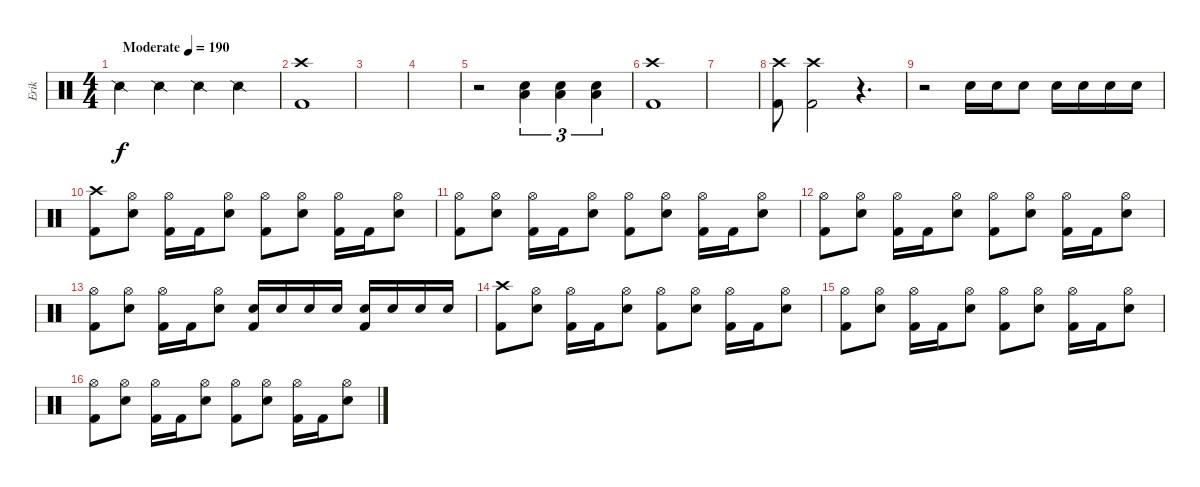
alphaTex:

\track ("Erik" "Erik") {instrument percussion}
\staff {score}
\articulation defaults
\ts (4 4)
\tempo (190 "Moderate")
\clef neutral
\ks c "Snare (side stick) 2".4{dy f} "Snare (side stick) 2".4 "Snare (side stick) 2".4 "Snare (side stick) 2".4
|
("Crash high (hit)" "Kick (hit) 2").1 |
|
|
r.2 ("Snare (hit) 2" "Low Floor Tom (hit)").4{tu (3 2)} ("Snare (hit) 2" "Low Floor Tom (hit)").4{tu (3 2)} ("Snare (hit) 2" "Low Floor Tom (hit)").4{tu (3 2)} |
("Crash high (hit)" "Kick (hit) 2").1 |
|
("Crash high (hit)" "Kick (hit) 2").8 ("Crash high (hit)" "Kick (hit) 2").2 r.4{d} |
r.2 "Snare (hit) 2".16 "Snare (hit) 2".16 "Snare (hit) 2".8 "Snare (hit) 2".16 "Snare (hit) 2".16 "Snare (hit) 2".16 "Snare (hit) 2".16 |
("Crash high (hit)" "Kick (hit) 2").8 ("Hi-Hat (open)" "Snare (hit) 2").8 ("Hi-Hat (open)" "Kick (hit) 2").16 "Kick (hit) 2".16 ("Hi-Hat (open)" "Snare (hit) 2").8 ("Hi-Hat (open)" "Kick (hit) 2").8 ("Hi-Hat (open)" "Snare (hit) 2").8 ("Hi-Hat (open)" "Kick (hit) 2").16 "Kick (hit) 2".16 ("Hi-Hat (open)" "Snare (hit) 2").8 |
("Hi-Hat (open)" "Kick (hit) 2").8 ("Hi-Hat (open)" "Snare (hit) 2").8 ("Hi-Hat (open)" "Kick (hit) 2").16 "Kick (hit) 2".16 ("Hi-Hat (open)" "Snare (hit) 2").8 ("Hi-Hat (open)" "Kick (hit) 2").8 ("Hi-Hat (open)" "Snare (hit) 2").8 ("Hi-Hat (open)" "Kick (hit) 2").16 "Kick (hit) 2".16 ("Hi-Hat (open)" "Snare (hit) 2").8 |
("Hi-Hat (open)" "Kick (hit) 2").8 ("Hi-Hat (open)" "Snare (hit) 2").8 ("Hi-Hat (open)" "Kick (hit) 2").16 "Kick (hit) 2".16 ("Hi-Hat (open)" "Snare (hit) 2").8 ("Hi-Hat (open)" "Kick (hit) 2").8 ("Hi-Hat (open)" "Snare (hit) 2").8 ("Hi-Hat (open)" "Kick (hit) 2").16 "Kick (hit) 2".16 ("Hi-Hat (open)" "Snare (hit) 2").8 |
("Hi-Hat (open)" "Kick (hit) 2").8 ("Hi-Hat (open)" "Snare (hit) 2").8 ("Hi-Hat (open)" "Kick (hit) 2").16 "Kick (hit) 2".16 ("Hi-Hat (open)" "Snare (hit) 2").8 ("Snare (hit) 2" "Kick (hit) 2").16 "Snare (hit) 2".16 "Snare (hit) 2".16 "Snare (hit) 2".16 ("Snare (hit) 2" "Kick (hit) 2").16 "Snare (hit) 2".16 "Snare (hit) 2".16 "Snare (hit) 2".16 |
("Crash high (hit)" "Kick (hit) 2").8 ("Hi-Hat (open)" "Snare (hit) 2").8 ("Hi-Hat (open)" "Kick (hit) 2").16 "Kick (hit) 2".16 ("Hi-Hat (open)" "Snare (hit) 2").8 ("Hi-Hat (open)" "Kick (hit) 2").8 ("Hi-Hat (open)" "Snare (hit) 2").8 ("Hi-Hat (open)" "Kick (hit) 2").16 "Kick (hit) 2".16 ("Hi-Hat (open)" "Snare (hit) 2").8 |
("Hi-Hat (open)" "Kick (hit) 2").8 ("Hi-Hat (open)" "Snare (hit) 2").8 ("Hi-Hat (open)" "Kick (hit) 2").16 "Kick (hit) 2".16 ("Hi-Hat (open)" "Snare (hit) 2").8 ("Hi-Hat (open)" "Kick (hit) 2").8 ("Hi-Hat (open)" "Snare (hit) 2").8 ("Hi-Hat (open)" "Kick (hit) 2").16 "Kick (hit) 2".16 ("Hi-Hat (open)" "Snare (hit) 2").8 |
("Hi-Hat (open)" "Kick (hit) 2").8 ("Hi-Hat (open)" "Snare (hit) 2").8 ("Hi-Hat (open)" "Kick (hit) 2").16 "Kick (hit) 2".16 ("Hi-Hat (open)" "Snare (hit) 2").8 ("Hi-Hat (open)" "Kick (hit) 2").8 ("Hi-Hat (open)" "Snare (hit) 2").8 ("Hi-Hat (open)" "Kick (hit) 2").16 "Kick (hit) 2".16 ("Hi-Hat (open)" "Snare (hit) 2").8
